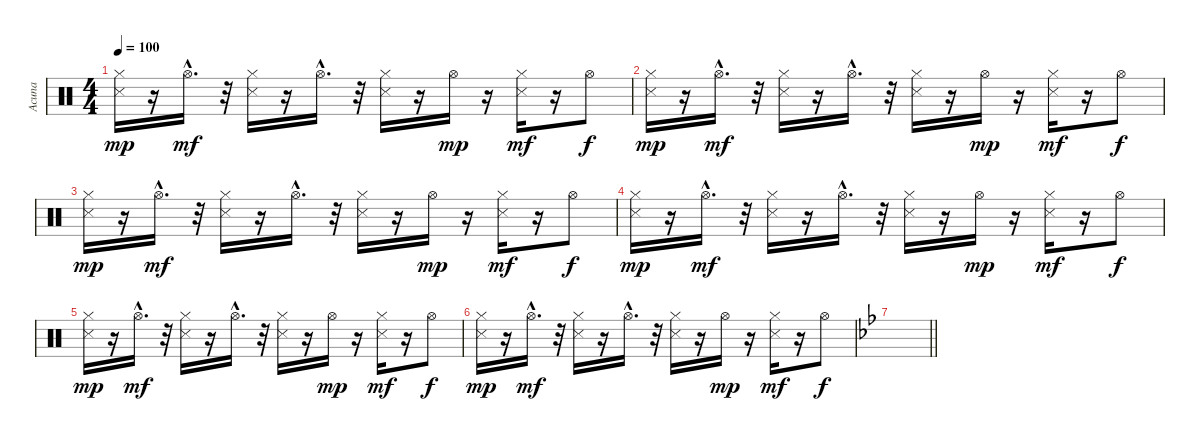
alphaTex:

\track ("Acuna" "Acuna") {instrument percussion}
\staff {score}
\articulation defaults
\ts (4 4)
\tempo 100
\clef neutral
\ks c
("Snare (side stick) 3" "Hi-Hat (closed)").16{dy mp} r.16 "Hi-Hat (open)"{hac}.16{d dy mf} r.32 ("Snare (side stick) 3" "Hi-Hat (closed)").16 r.16 "Hi-Hat (open)"{hac}.16{d} r.32 ("Snare (side stick) 3" "Hi-Hat (closed)").16 r.16 "Hi-Hat (open)".16{dy mp} r.16 ("Snare (side stick) 3" "Hi-Hat (closed)").16{dy mf} r.16 "Hi-Hat (open)".8{dy f} |
("Snare (side stick) 3" "Hi-Hat (closed)").16{dy mp} r.16 "Hi-Hat (open)"{hac}.16{d dy mf} r.32 ("Snare (side stick) 3" "Hi-Hat (closed)").16 r.16 "Hi-Hat (open)"{hac}.16{d} r.32 ("Snare (side stick) 3" "Hi-Hat (closed)").16 r.16 "Hi-Hat (open)".16{dy mp} r.16 ("Snare (side stick) 3" "Hi-Hat (closed)").16{dy mf} r.16 "Hi-Hat (open)".8{dy f} |
("Snare (side stick) 3" "Hi-Hat (closed)").16{dy mp} r.16 "Hi-Hat (open)"{hac}.16{d dy mf} r.32 ("Snare (side stick) 3" "Hi-Hat (closed)").16 r.16 "Hi-Hat (open)"{hac}.16{d} r.32 ("Snare (side stick) 3" "Hi-Hat (closed)").16 r.16 "Hi-Hat (open)".16{dy mp} r.16 ("Snare (side stick) 3" "Hi-Hat (closed)").16{dy mf} r.16 "Hi-Hat (open)".8{dy f} |
("Snare (side stick) 3" "Hi-Hat (closed)").16{dy mp} r.16 "Hi-Hat (open)"{hac}.16{d dy mf} r.32 ("Snare (side stick) 3" "Hi-Hat (closed)").16 r.16 "Hi-Hat (open)"{hac}.16{d} r.32 ("Snare (side stick) 3" "Hi-Hat (closed)").16 r.16 "Hi-Hat (open)".16{dy mp} r.16 ("Snare (side stick) 3" "Hi-Hat (closed)").16{dy mf} r.16 "Hi-Hat (open)".8{dy f} |
("Snare (side stick) 3" "Hi-Hat (closed)").16{dy mp} r.16 "Hi-Hat (open)"{hac}.16{d dy mf} r.32 ("Snare (side stick) 3" "Hi-Hat (closed)").16 r.16 "Hi-Hat (open)"{hac}.16{d} r.32 ("Snare (side stick) 3" "Hi-Hat (closed)").16 r.16 "Hi-Hat (open)".16{dy mp} r.16 ("Snare (side stick) 3" "Hi-Hat (closed)").16{dy mf} r.16 "Hi-Hat (open)".8{dy f} |
("Snare (side stick) 3" "Hi-Hat (closed)").16{dy mp} r.16 "Hi-Hat (open)"{hac}.16{d dy mf} r.32 ("Snare (side stick) 3" "Hi-Hat (closed)").16 r.16 "Hi-Hat (open)"{hac}.16{d} r.32 ("Snare (side stick) 3" "Hi-Hat (closed)").16 r.16 "Hi-Hat (open)".16{dy mp} r.16 ("Snare (side stick) 3" "Hi-Hat (closed)").16{dy mf} r.16 "Hi-Hat (open)".8{dy f} |
\barLineRight lightlight
\ks bb
